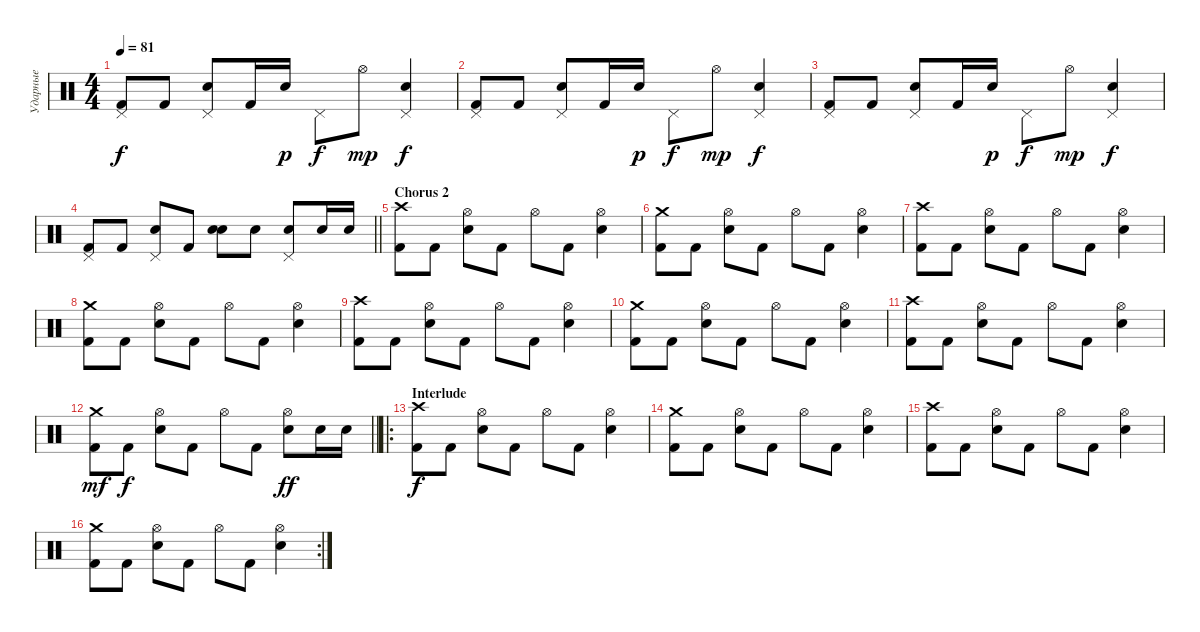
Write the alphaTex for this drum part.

\track ("Ударные" "Ударные") {instrument percussion}
\staff {score}
\articulation defaults
\ts (4 4)
\tempo 81
\clef neutral
\ks c
("Pedal Hi-Hat (hit)" "Kick (hit) 2").8{dy f} "Kick (hit) 2".8 ("Pedal Hi-Hat (hit)" "Electric Snare (hit)").8 "Kick (hit) 2".16 "Electric Snare (hit)".16{dy p} "Pedal Hi-Hat (hit)".8{dy f} "Hi-Hat (open)".8{dy mp} ("Pedal Hi-Hat (hit)" "Electric Snare (hit)").4{dy f} |
("Pedal Hi-Hat (hit)" "Kick (hit) 2").8 "Kick (hit) 2".8 ("Pedal Hi-Hat (hit)" "Electric Snare (hit)").8 "Kick (hit) 2".16 "Electric Snare (hit)".16{dy p} "Pedal Hi-Hat (hit)".8{dy f} "Hi-Hat (open)".8{dy mp} ("Pedal Hi-Hat (hit)" "Electric Snare (hit)").4{dy f} |
("Pedal Hi-Hat (hit)" "Kick (hit) 2").8 "Kick (hit) 2".8 ("Pedal Hi-Hat (hit)" "Electric Snare (hit)").8 "Kick (hit) 2".16 "Electric Snare (hit)".16{dy p} "Pedal Hi-Hat (hit)".8{dy f} "Hi-Hat (open)".8{dy mp} ("Pedal Hi-Hat (hit)" "Electric Snare (hit)").4{dy f} |
\barLineRight lightlight
("Pedal Hi-Hat (hit)" "Kick (hit) 2").8 "Kick (hit) 2".8 ("Pedal Hi-Hat (hit)" "Electric Snare (hit)").8 "Kick (hit) 2".8 ("Electric Snare (hit)" "Electric Snare (hit)").8{bd 120} "Electric Snare (hit)".8 ("Pedal Hi-Hat (hit)" "Electric Snare (hit)").8 "Electric Snare (hit)".16 "Electric Snare (hit)".16 |
\section ("" "Chorus 2")
("Crash high (hit)" "Kick (hit) 2").8 "Kick (hit) 2".8 ("Hi-Hat (open)" "Electric Snare (hit)").8 "Kick (hit) 2".8 "Hi-Hat (open)".8 "Kick (hit) 2".8 ("Hi-Hat (open)" "Electric Snare (hit)").4 |
("Crash medium (hit)" "Kick (hit) 2").8 "Kick (hit) 2".8 ("Hi-Hat (open)" "Electric Snare (hit)").8 "Kick (hit) 2".8 "Hi-Hat (open)".8 "Kick (hit) 2".8 ("Hi-Hat (open)" "Electric Snare (hit)").4 |
("Crash high (hit)" "Kick (hit) 2").8 "Kick (hit) 2".8 ("Hi-Hat (open)" "Electric Snare (hit)").8 "Kick (hit) 2".8 "Hi-Hat (open)".8 "Kick (hit) 2".8 ("Hi-Hat (open)" "Electric Snare (hit)").4 |
("Crash medium (hit)" "Kick (hit) 2").8 "Kick (hit) 2".8 ("Hi-Hat (open)" "Electric Snare (hit)").8 "Kick (hit) 2".8 "Hi-Hat (open)".8 "Kick (hit) 2".8 ("Hi-Hat (open)" "Electric Snare (hit)").4 |
("Crash high (hit)" "Kick (hit) 2").8 "Kick (hit) 2".8 ("Hi-Hat (open)" "Electric Snare (hit)").8 "Kick (hit) 2".8 "Hi-Hat (open)".8 "Kick (hit) 2".8 ("Hi-Hat (open)" "Electric Snare (hit)").4 |
("Crash medium (hit)" "Kick (hit) 2").8 "Kick (hit) 2".8 ("Hi-Hat (open)" "Electric Snare (hit)").8 "Kick (hit) 2".8 "Hi-Hat (open)".8 "Kick (hit) 2".8 ("Hi-Hat (open)" "Electric Snare (hit)").4 |
("Crash high (hit)" "Kick (hit) 2").8 "Kick (hit) 2".8 ("Hi-Hat (open)" "Electric Snare (hit)").8 "Kick (hit) 2".8 "Hi-Hat (open)".8 "Kick (hit) 2".8 ("Hi-Hat (open)" "Electric Snare (hit)").4 |
\barLineRight lightlight
("Crash medium (hit)" "Kick (hit) 2").8{dy mf} "Kick (hit) 2".8{dy f} ("Hi-Hat (open)" "Electric Snare (hit)").8 "Kick (hit) 2".8 "Hi-Hat (open)".8 "Kick (hit) 2".8 ("Hi-Hat (open)" "Electric Snare (hit)").8{dy ff} "Electric Snare (hit)".16 "Electric Snare (hit)".16 |
\ro
\section ("" "Interlude")
("Crash high (hit)" "Kick (hit) 2").8{dy f} "Kick (hit) 2".8 ("Hi-Hat (open)" "Electric Snare (hit)").8 "Kick (hit) 2".8 "Hi-Hat (open)".8 "Kick (hit) 2".8 ("Hi-Hat (open)" "Electric Snare (hit)").4 |
("Crash medium (hit)" "Kick (hit) 2").8 "Kick (hit) 2".8 ("Hi-Hat (open)" "Electric Snare (hit)").8 "Kick (hit) 2".8 "Hi-Hat (open)".8 "Kick (hit) 2".8 ("Hi-Hat (open)" "Electric Snare (hit)").4 |
("Crash high (hit)" "Kick (hit) 2").8 "Kick (hit) 2".8 ("Hi-Hat (open)" "Electric Snare (hit)").8 "Kick (hit) 2".8 "Hi-Hat (open)".8 "Kick (hit) 2".8 ("Hi-Hat (open)" "Electric Snare (hit)").4 |
\rc 2
("Crash medium (hit)" "Kick (hit) 2").8 "Kick (hit) 2".8 ("Hi-Hat (open)" "Electric Snare (hit)").8 "Kick (hit) 2".8 "Hi-Hat (open)".8 "Kick (hit) 2".8 ("Hi-Hat (open)" "Electric Snare (hit)").4
